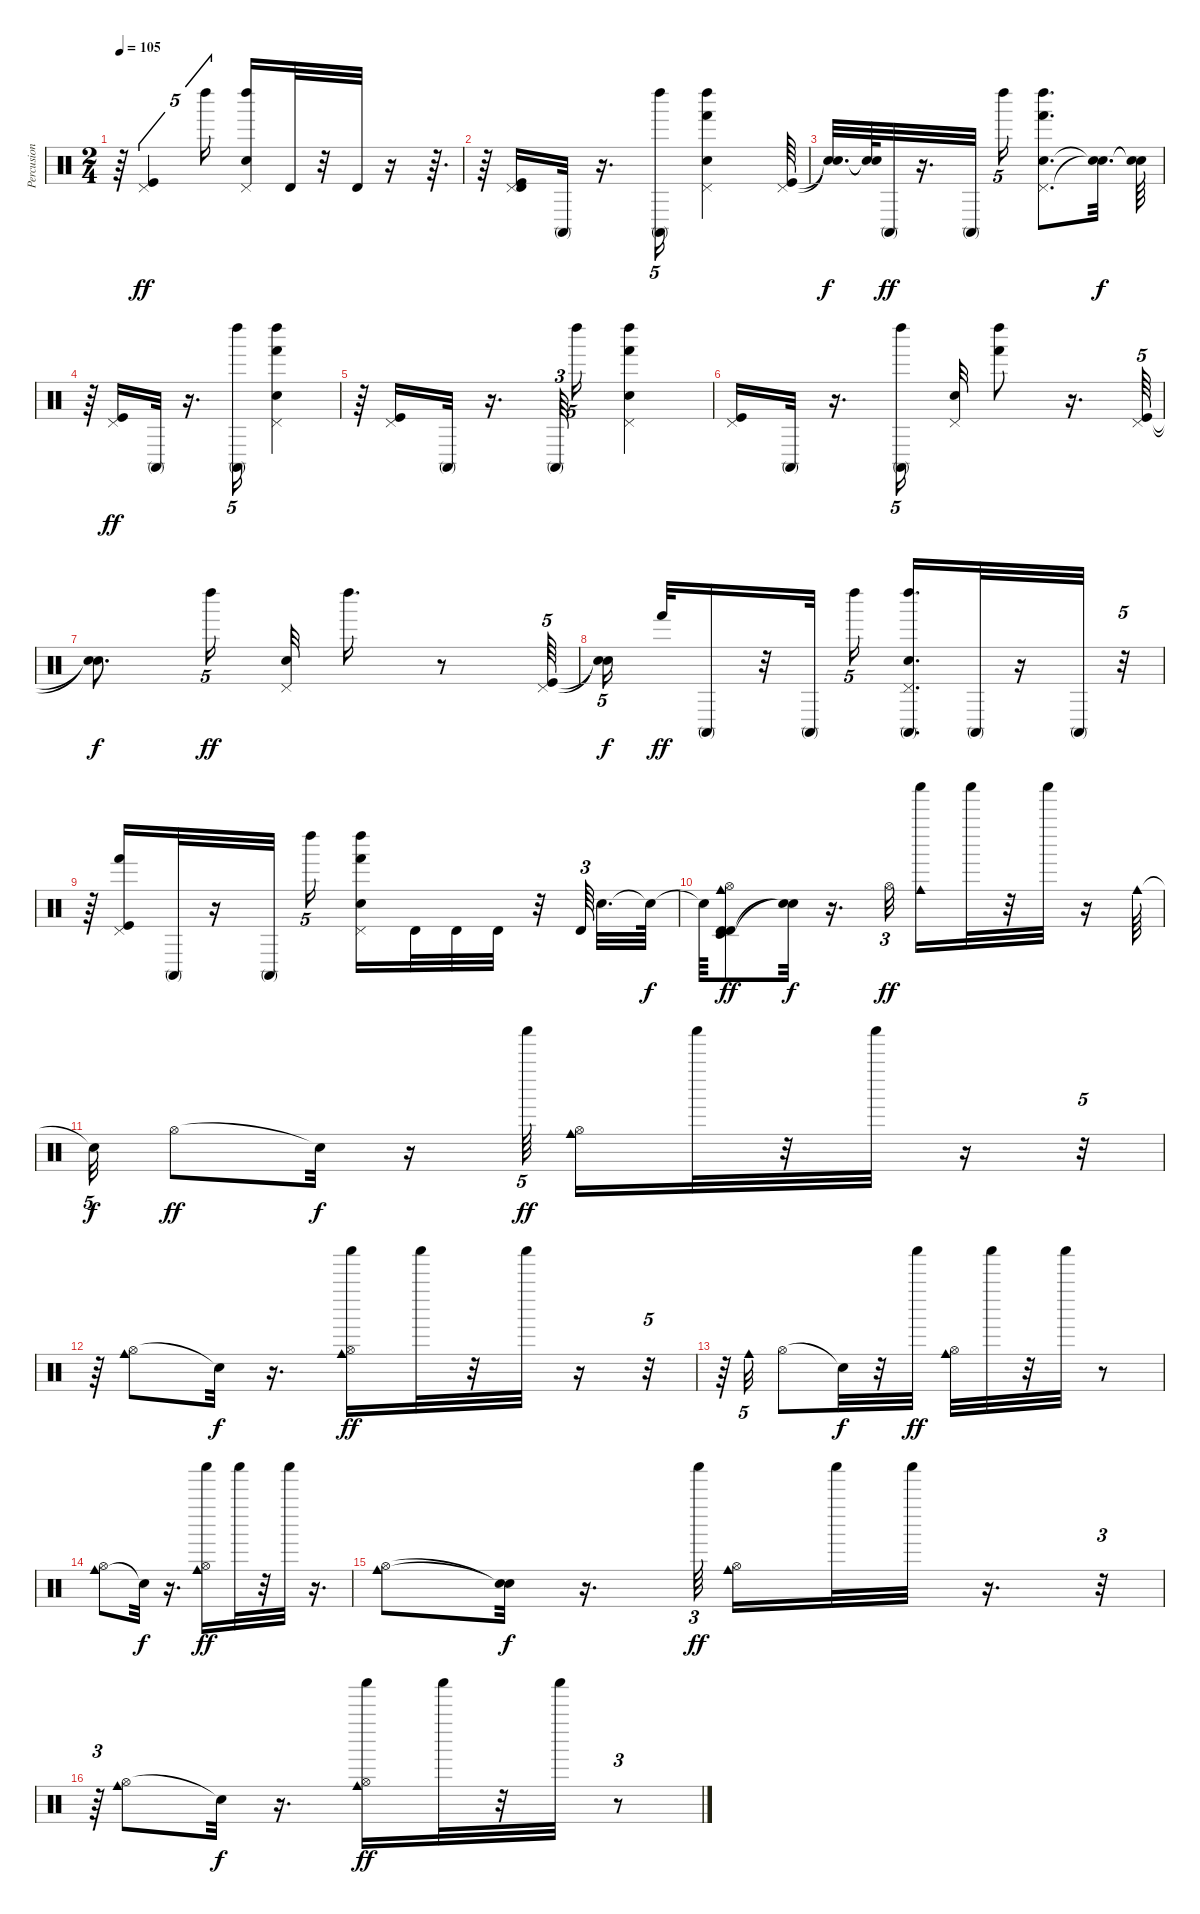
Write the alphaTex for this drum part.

\track ("Percusion" "Percusion") {instrument percussion}
\staff {score}
\articulation defaults
\ts (2 4)
\tempo 105
\clef neutral
\ks c
r.64{dy ff} ("Pedal Hi-Hat (hit)" "Kick (hit)").4{tu (5 4)} "Left Maraca (hit)".16{tu (5 4)} ("Electric Snare (hit)" "Pedal Hi-Hat (hit)" "Left Maraca (hit)").16 "Timbale high (hit)".32 r.32 "Timbale high (hit)".32 r.16 r.64{d} |
r.64 ("Kick (hit)" "Pedal Hi-Hat (hit)" "Timbale high (hit)").16 "Conga high (mute)".32 r.16{d} ("Left Maraca (hit)" "Conga high (mute)").16{tu (5 4)} ("Pedal Hi-Hat (hit)" "Electric Snare (hit)" "Left Maraca (hit)" "Hand (hit)").4 ("Pedal Hi-Hat (hit)" "Kick (hit)").64 |
("Snare (hit)"{t} "Snare (hit)"{t}).32{d dy f} ("Snare (hit)"{t} "Snare (hit)"{t}).64 "Conga high (mute)".32{dy ff} r.16{d} "Conga high (mute)".32 "Left Maraca (hit)".16{tu (5 4)} ("Electric Snare (hit)" "Pedal Hi-Hat (hit)" "Hand (hit)" "Left Maraca (hit)").8{d} ("Snare (hit)"{t} "Snare (hit)"{t}).32{d dy f} ("Snare (hit)"{t} "Snare (hit)"{t}).64 |
r.64 ("Kick (hit)" "Pedal Hi-Hat (hit)").16{dy ff} "Conga high (mute)".32 r.16{d} ("Conga high (mute)" "Left Maraca (hit)").16{tu (5 4)} ("Pedal Hi-Hat (hit)" "Electric Snare (hit)" "Hand (hit)" "Left Maraca (hit)").4 |
r.64 ("Kick (hit)" "Pedal Hi-Hat (hit)").16 "Conga high (mute)".32 r.16{d} "Conga high (mute)".64{tu (3 2)} "Left Maraca (hit)".16{tu (5 4)} ("Hand (hit)" "Electric Snare (hit)" "Pedal Hi-Hat (hit)" "Left Maraca (hit)").4 |
("Pedal Hi-Hat (hit)" "Kick (hit)").16 "Conga high (mute)".32 r.16{d} ("Conga high (mute)" "Left Maraca (hit)").16{tu (5 4)} ("Pedal Hi-Hat (hit)" "Electric Snare (hit)").32 ("Left Maraca (hit)" "Hand (hit)").8 r.16{d} ("Kick (hit)" "Pedal Hi-Hat (hit)").64{tu (5 4)} |
("Snare (hit)"{t} "Snare (hit)"{t}).8{d dy f} "Left Maraca (hit)".16{tu (5 4) dy ff} ("Electric Snare (hit)" "Pedal Hi-Hat (hit)").32 "Left Maraca (hit)".16{d} r.8 ("Pedal Hi-Hat (hit)" "Kick (hit)").64{tu (5 4)} |
("Snare (hit)"{t} "Snare (hit)"{t}).16{tu (5 4) dy f beam splitsecondary} "Hand (hit)".32{dy ff} "Conga high (mute)".16 r.32 "Conga high (mute)".32 "Left Maraca (hit)".16{tu (5 4)} ("Pedal Hi-Hat (hit)" "Electric Snare (hit)" "Left Maraca (hit)" "Conga high (mute)").16{d} "Conga high (mute)".32 r.16 "Conga high (mute)".32 r.32{tu (5 4)} |
r.64 ("Hand (hit)" "Kick (hit)" "Pedal Hi-Hat (hit)").16 "Conga high (mute)".32 r.16 "Conga high (mute)".32 "Left Maraca (hit)".16{tu (5 4)} ("Pedal Hi-Hat (hit)" "Electric Snare (hit)" "Hand (hit)" "Left Maraca (hit)").16 "Timbale high (hit)".32 "Timbale high (hit)".32 "Timbale high (hit)".32 r.32 "Timbale high (hit)".64{tu (3 2) beam splitsecondary} "Electric Snare (hit)".32{d} "Snare (hit)"{t}.64{dy f} |
"Snare (hit)"{t}.64 ("Timbale low (hit)" "Timbale high (hit)" "Timbale high (hit)" "Cowbell medium (hit)" "Hi-Hat (open)").8{dy ff} ("Snare (hit)"{t} "Snare (hit)"{t}).32{dy f} r.16{d} "Hi-Hat (open)".32{tu (3 2) dy ff beam splitsecondary} ("Cowbell medium (hit)" "Shaker (hit)").16 "Shaker (hit)".32 r.32 "Shaker (hit)".32 r.16 "Cowbell medium (hit)".64 |
"Snare (hit)"{t}.32{tu (5 4) dy f} "Hi-Hat (open)".8{dy ff} "Snare (hit)"{t}.32{dy f} r.16 "Shaker (hit)".64{tu (5 4) dy ff} ("Cowbell medium (hit)" "Hi-Hat (open)").16 "Shaker (hit)".32 r.32 "Shaker (hit)".32 r.16 r.32{tu (5 4)} |
r.64 ("Hi-Hat (open)" "Cowbell medium (hit)").8 "Snare (hit)"{t}.32{dy f} r.16{d} ("Shaker (hit)" "Hi-Hat (open)" "Cowbell medium (hit)").16{dy ff} "Shaker (hit)".32 r.32 "Shaker (hit)".32 r.16 r.32{tu (5 4)} |
r.64 "Cowbell medium (hit)".32{tu (5 4)} "Hi-Hat (open)".8 "Snare (hit)"{t}.32{dy f} r.32 "Shaker (hit)".32{dy ff} ("Cowbell medium (hit)" "Hi-Hat (open)").32 "Shaker (hit)".32 r.32 "Shaker (hit)".32 r.8 |
("Cowbell medium (hit)" "Hi-Hat (open)").8 "Snare (hit)"{t}.32{dy f} r.16{d} ("Hi-Hat (open)" "Cowbell medium (hit)" "Shaker (hit)").16{dy ff} "Shaker (hit)".32 r.32 "Shaker (hit)".32 r.16{d} |
("Cowbell medium (hit)" "Hi-Hat (open)").8 ("Snare (hit)"{t} "Snare (hit)"{t}).32{dy f} r.16{d} "Shaker (hit)".64{tu (3 2) dy ff beam splitsecondary} ("Hi-Hat (open)" "Cowbell medium (hit)").16 "Shaker (hit)".32 "Shaker (hit)".32 r.16{d} r.32{tu (3 2)} |
r.64{tu (3 2)} ("Hi-Hat (open)" "Cowbell medium (hit)").8 "Snare (hit)"{t}.32{dy f} r.16{d} ("Cowbell medium (hit)" "Hi-Hat (open)" "Shaker (hit)").16{dy ff} "Shaker (hit)".32 r.32 "Shaker (hit)".32 r.8{tu (3 2)}
